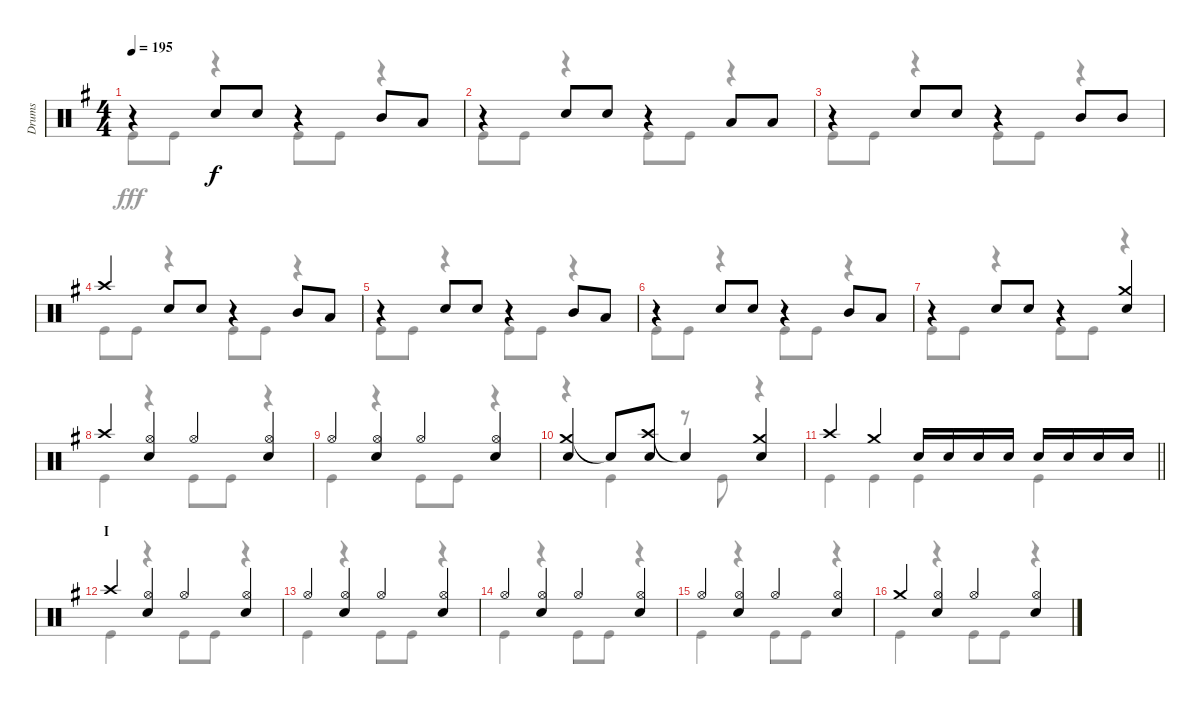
\track ("Drums" "Drums") {instrument percussion}
\staff {score}
\articulation defaults
\voice
\ts (4 4)
\tempo 195
\clef neutral
\ks g
r.4{dy f} "Snare (hit) 2".8 "Snare (hit) 2".8 r.4 "Mid Tom (hit)".8 "Low Tom (hit)".8 |
r.4 "Snare (hit) 2".8 "Snare (hit) 2".8 r.4 "Low Tom (hit)".8 "Low Tom (hit)".8 |
r.4 "Snare (hit) 2".8 "Snare (hit) 2".8 r.4 "Mid Tom (hit)".8 "Mid Tom (hit)".8 |
"Crash high (hit)".4 "Snare (hit) 2".8 "Snare (hit) 2".8 r.4 "Mid Tom (hit)".8 "Low Tom (hit)".8 |
r.4 "Snare (hit) 2".8 "Snare (hit) 2".8 r.4 "Mid Tom (hit)".8 "Low Tom (hit)".8 |
r.4 "Snare (hit) 2".8 "Snare (hit) 2".8 r.4 "Mid Tom (hit)".8 "Low Tom (hit)".8 |
r.4 "Snare (hit) 2".8 "Snare (hit) 2".8 r.4 ("Crash medium (hit)" "Snare (hit) 2").4 |
"Crash high (hit)".4 ("Hi-Hat (open)" "Snare (hit) 2").4 "Hi-Hat (open)".4 ("Hi-Hat (open)" "Snare (hit) 2").4 |
"Hi-Hat (open)".4 ("Hi-Hat (open)" "Snare (hit) 2").4 "Hi-Hat (open)".4 ("Hi-Hat (open)" "Snare (hit) 2").4 |
("Crash medium (hit)" "Snare (hit) 2").4 "Snare (hit)"{t}.8 ("Crash high (hit)" "Snare (hit) 2").8 "Snare (hit)"{t}.4 ("Crash medium (hit)" "Snare (hit) 2").4 |
\barLineRight lightlight "Crash high (hit)".4 "Crash medium (hit)".4 "Snare (hit) 2".16 "Snare (hit) 2".16 "Snare (hit) 2".16 "Snare (hit) 2".16 "Snare (hit) 2".16 "Snare (hit) 2".16 "Snare (hit) 2".16 "Snare (hit) 2".16
|
\section ("" "I")
"Crash high (hit)".4 ("Hi-Hat (open)" "Snare (hit) 2").4 "Hi-Hat (open)".4 ("Hi-Hat (open)" "Snare (hit) 2").4 |
"Hi-Hat (open)".4 ("Hi-Hat (open)" "Snare (hit) 2").4 "Hi-Hat (open)".4 ("Hi-Hat (open)" "Snare (hit) 2").4 |
"Hi-Hat (open)".4 ("Hi-Hat (open)" "Snare (hit) 2").4 "Hi-Hat (open)".4 ("Hi-Hat (open)" "Snare (hit) 2").4 |
"Hi-Hat (open)".4 ("Hi-Hat (open)" "Snare (hit) 2").4 "Hi-Hat (open)".4 ("Hi-Hat (open)" "Snare (hit) 2").4 |
"Crash medium (hit)".4 ("Hi-Hat (open)" "Snare (hit) 2").4 "Hi-Hat (open)".4 ("Hi-Hat (open)" "Snare (hit) 2").4
\voice
\clef neutral
\ottava regular
\simile none
\ks g "Kick (hit)".8{dy fff} "Kick (hit)".8
r.4 "Kick (hit)".8 "Kick (hit)".8 r.4 |
"Kick (hit)".8 "Kick (hit)".8 r.4 "Kick (hit)".8 "Kick (hit)".8 r.4 |
"Kick (hit)".8 "Kick (hit)".8 r.4 "Kick (hit)".8 "Kick (hit)".8 r.4 |
"Kick (hit)".8 "Kick (hit)".8 r.4 "Kick (hit)".8 "Kick (hit)".8 r.4 |
"Kick (hit)".8 "Kick (hit)".8 r.4 "Kick (hit)".8 "Kick (hit)".8 r.4 |
"Kick (hit)".8 "Kick (hit)".8 r.4 "Kick (hit)".8 "Kick (hit)".8 r.4 |
"Kick (hit)".8 "Kick (hit)".8 r.4 "Kick (hit)".8 "Kick (hit)".8 r.4 |
"Kick (hit)".4 r.4 "Kick (hit)".8 "Kick (hit)".8 r.4 |
"Kick (hit)".4 r.4 "Kick (hit)".8 "Kick (hit)".8 r.4 |
r.4 "Kick (hit)".4 r.8 "Kick (hit)".8 r.4 |
\barLineRight lightlight "Kick (hit)".4 "Kick (hit)".4 "Kick (hit)".4 "Kick (hit)".4
|
"Kick (hit)".4 r.4 "Kick (hit)".8 "Kick (hit)".8 r.4 |
"Kick (hit)".4 r.4 "Kick (hit)".8 "Kick (hit)".8 r.4 |
"Kick (hit)".4 r.4 "Kick (hit)".8 "Kick (hit)".8 r.4 |
"Kick (hit)".4 r.4 "Kick (hit)".8 "Kick (hit)".8 r.4 |
"Kick (hit)".4 r.4 "Kick (hit)".8 "Kick (hit)".8 r.4
